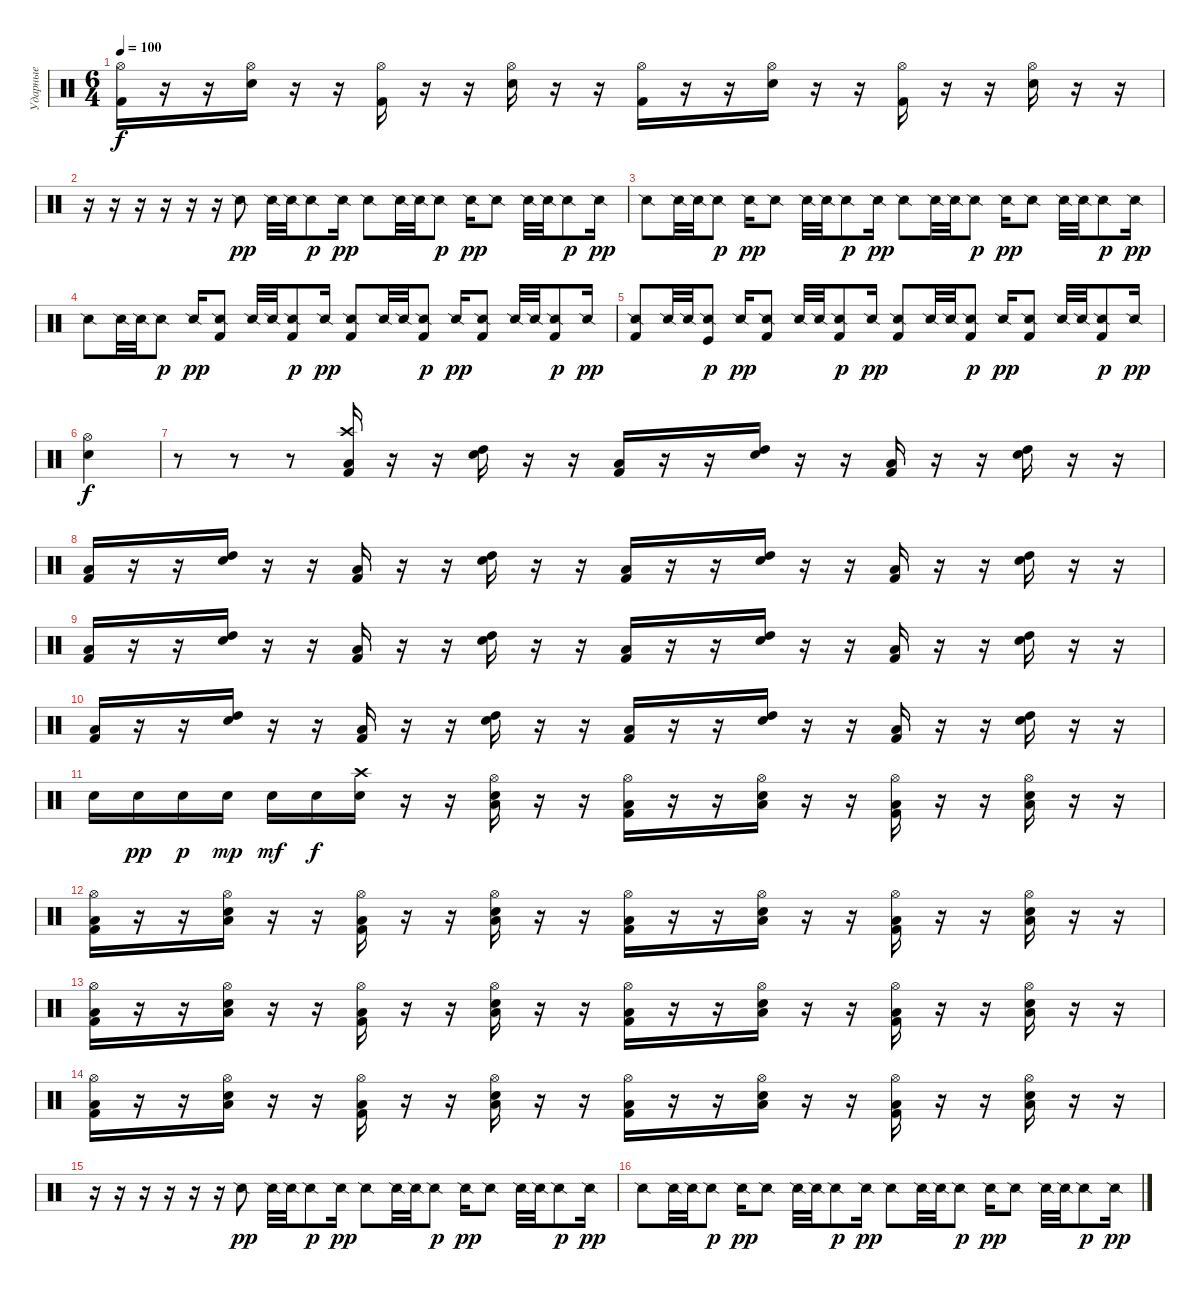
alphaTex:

\track ("Ударные" "Ударные") {instrument percussion}
\staff {score}
\articulation defaults
\ts (6 4)
\tempo 100
\clef neutral
\ks c
("Hi-Hat (open)" "Kick (hit) 2").16{dy f} r.16 r.16 ("Hi-Hat (open)" "Snare (hit) 2").16 r.16 r.16 ("Hi-Hat (open)" "Kick (hit) 2").16 r.16 r.16 ("Hi-Hat (open)" "Snare (hit) 2").16 r.16 r.16 ("Hi-Hat (open)" "Kick (hit) 2").16 r.16 r.16 ("Hi-Hat (open)" "Snare (hit) 2").16 r.16 r.16 ("Hi-Hat (open)" "Kick (hit) 2").16 r.16 r.16 ("Hi-Hat (open)" "Snare (hit) 2").16 r.16 r.16 |
r.16 r.16 r.16 r.16 r.16 r.16 "Snare (side stick) 2".8{dy pp} "Snare (side stick) 2".32 "Snare (side stick) 2".32 "Snare (side stick) 2".8{dy p} "Snare (side stick) 2".16{dy pp} "Snare (side stick) 2".8 "Snare (side stick) 2".32 "Snare (side stick) 2".32 "Snare (side stick) 2".8{dy p} "Snare (side stick) 2".16{dy pp} "Snare (side stick) 2".8 "Snare (side stick) 2".32 "Snare (side stick) 2".32 "Snare (side stick) 2".8{dy p} "Snare (side stick) 2".16{dy pp} |
"Snare (side stick) 2".8 "Snare (side stick) 2".32 "Snare (side stick) 2".32 "Snare (side stick) 2".8{dy p} "Snare (side stick) 2".16{dy pp} "Snare (side stick) 2".8 "Snare (side stick) 2".32 "Snare (side stick) 2".32 "Snare (side stick) 2".8{dy p} "Snare (side stick) 2".16{dy pp} "Snare (side stick) 2".8 "Snare (side stick) 2".32 "Snare (side stick) 2".32 "Snare (side stick) 2".8{dy p} "Snare (side stick) 2".16{dy pp} "Snare (side stick) 2".8 "Snare (side stick) 2".32 "Snare (side stick) 2".32 "Snare (side stick) 2".8{dy p} "Snare (side stick) 2".16{dy pp} |
"Snare (side stick) 2".8 "Snare (side stick) 2".32 "Snare (side stick) 2".32 "Snare (side stick) 2".8{dy p} "Snare (side stick) 2".16{dy pp} ("Snare (side stick) 2" "Kick (hit) 2").8 "Snare (side stick) 2".32 "Snare (side stick) 2".32 ("Snare (side stick) 2" "Kick (hit) 2").8{dy p} "Snare (side stick) 2".16{dy pp} ("Snare (side stick) 2" "Kick (hit) 2").8 "Snare (side stick) 2".32 "Snare (side stick) 2".32 ("Snare (side stick) 2" "Kick (hit) 2").8{dy p} "Snare (side stick) 2".16{dy pp} ("Snare (side stick) 2" "Kick (hit) 2").8 "Snare (side stick) 2".32 "Snare (side stick) 2".32 ("Snare (side stick) 2" "Kick (hit) 2").8{dy p} "Snare (side stick) 2".16{dy pp} |
("Snare (side stick) 2" "Kick (hit) 2").8 "Snare (side stick) 2".32 "Snare (side stick) 2".32 ("Snare (side stick) 2" "Kick (hit)").8{dy p} "Snare (side stick) 2".16{dy pp} ("Snare (side stick) 2" "Kick (hit) 2").8 "Snare (side stick) 2".32 "Snare (side stick) 2".32 ("Snare (side stick) 2" "Kick (hit) 2").8{dy p} "Snare (side stick) 2".16{dy pp} ("Snare (side stick) 2" "Kick (hit) 2").8 "Snare (side stick) 2".32 "Snare (side stick) 2".32 ("Snare (side stick) 2" "Kick (hit) 2").8{dy p} "Snare (side stick) 2".16{dy pp} ("Snare (side stick) 2" "Kick (hit) 2").8 "Snare (side stick) 2".32 "Snare (side stick) 2".32 ("Snare (side stick) 2" "Kick (hit) 2").8{dy p} "Snare (side stick) 2".16{dy pp} |
("Hi-Hat (open)" "Snare (hit) 2").4{dy f} |
r.8 r.8 r.8 ("Crash high (hit)" "Low Tom (hit)" "Kick (hit) 2").16 r.16 r.16 ("High Tom (hit)" "Snare (hit) 2").16 r.16 r.16 ("Low Tom (hit)" "Kick (hit) 2").16 r.16 r.16 ("High Tom (hit)" "Snare (hit) 2").16 r.16 r.16 ("Low Tom (hit)" "Kick (hit) 2").16 r.16 r.16 ("High Tom (hit)" "Snare (hit) 2").16 r.16 r.16 |
("Low Tom (hit)" "Kick (hit) 2").16 r.16 r.16 ("High Tom (hit)" "Snare (hit) 2").16 r.16 r.16 ("Low Tom (hit)" "Kick (hit) 2").16 r.16 r.16 ("High Tom (hit)" "Snare (hit) 2").16 r.16 r.16 ("Low Tom (hit)" "Kick (hit) 2").16 r.16 r.16 ("High Tom (hit)" "Snare (hit) 2").16 r.16 r.16 ("Low Tom (hit)" "Kick (hit) 2").16 r.16 r.16 ("High Tom (hit)" "Snare (hit) 2").16 r.16 r.16 |
("Low Tom (hit)" "Kick (hit) 2").16 r.16 r.16 ("High Tom (hit)" "Snare (hit) 2").16 r.16 r.16 ("Low Tom (hit)" "Kick (hit) 2").16 r.16 r.16 ("High Tom (hit)" "Snare (hit) 2").16 r.16 r.16 ("Low Tom (hit)" "Kick (hit) 2").16 r.16 r.16 ("High Tom (hit)" "Snare (hit) 2").16 r.16 r.16 ("Low Tom (hit)" "Kick (hit) 2").16 r.16 r.16 ("High Tom (hit)" "Snare (hit) 2").16 r.16 r.16 |
("Low Tom (hit)" "Kick (hit) 2").16 r.16 r.16 ("High Tom (hit)" "Snare (hit) 2").16 r.16 r.16 ("Low Tom (hit)" "Kick (hit) 2").16 r.16 r.16 ("High Tom (hit)" "Snare (hit) 2").16 r.16 r.16 ("Low Tom (hit)" "Kick (hit) 2").16 r.16 r.16 ("High Tom (hit)" "Snare (hit) 2").16 r.16 r.16 ("Low Tom (hit)" "Kick (hit) 2").16 r.16 r.16 ("High Tom (hit)" "Snare (hit) 2").16 r.16 r.16 |
"Snare (hit) 2".16 "Snare (hit) 2".16{dy pp} "Snare (hit) 2".16{dy p} "Snare (hit) 2".16{dy mp} "Snare (hit) 2".16{dy mf} "Snare (hit) 2".16{dy f} ("Crash high (hit)" "Snare (hit) 2").16 r.16 r.16 ("Hi-Hat (open)" "Low Tom (hit)" "Snare (hit) 2").16 r.16 r.16 ("Hi-Hat (open)" "Low Tom (hit)" "Kick (hit) 2").16 r.16 r.16 ("Hi-Hat (open)" "Low Tom (hit)" "Snare (hit) 2").16 r.16 r.16 ("Hi-Hat (open)" "Low Tom (hit)" "Kick (hit) 2").16 r.16 r.16 ("Hi-Hat (open)" "Low Tom (hit)" "Snare (hit) 2").16 r.16 r.16 |
("Hi-Hat (open)" "Low Tom (hit)" "Kick (hit) 2").16 r.16 r.16 ("Hi-Hat (open)" "Low Tom (hit)" "Snare (hit) 2").16 r.16 r.16 ("Hi-Hat (open)" "Low Tom (hit)" "Kick (hit) 2").16 r.16 r.16 ("Hi-Hat (open)" "Low Tom (hit)" "Snare (hit) 2").16 r.16 r.16 ("Hi-Hat (open)" "Low Tom (hit)" "Kick (hit) 2").16 r.16 r.16 ("Hi-Hat (open)" "Low Tom (hit)" "Snare (hit) 2").16 r.16 r.16 ("Hi-Hat (open)" "Low Tom (hit)" "Kick (hit) 2").16 r.16 r.16 ("Hi-Hat (open)" "Low Tom (hit)" "Snare (hit) 2").16 r.16 r.16 |
("Hi-Hat (open)" "Low Tom (hit)" "Kick (hit) 2").16 r.16 r.16 ("Hi-Hat (open)" "Low Tom (hit)" "Snare (hit) 2").16 r.16 r.16 ("Hi-Hat (open)" "Low Tom (hit)" "Kick (hit) 2").16 r.16 r.16 ("Hi-Hat (open)" "Low Tom (hit)" "Snare (hit) 2").16 r.16 r.16 ("Hi-Hat (open)" "Low Tom (hit)" "Kick (hit) 2").16 r.16 r.16 ("Hi-Hat (open)" "Low Tom (hit)" "Snare (hit) 2").16 r.16 r.16 ("Hi-Hat (open)" "Low Tom (hit)" "Kick (hit) 2").16 r.16 r.16 ("Hi-Hat (open)" "Low Tom (hit)" "Snare (hit) 2").16 r.16 r.16 |
("Hi-Hat (open)" "Low Tom (hit)" "Kick (hit) 2").16 r.16 r.16 ("Hi-Hat (open)" "Low Tom (hit)" "Snare (hit) 2").16 r.16 r.16 ("Hi-Hat (open)" "Low Tom (hit)" "Kick (hit) 2").16 r.16 r.16 ("Hi-Hat (open)" "Low Tom (hit)" "Snare (hit) 2").16 r.16 r.16 ("Hi-Hat (open)" "Low Tom (hit)" "Kick (hit) 2").16 r.16 r.16 ("Hi-Hat (open)" "Low Tom (hit)" "Snare (hit) 2").16 r.16 r.16 ("Hi-Hat (open)" "Low Tom (hit)" "Kick (hit) 2").16 r.16 r.16 ("Hi-Hat (open)" "Low Tom (hit)" "Snare (hit) 2").16 r.16 r.16 |
r.16 r.16 r.16 r.16 r.16 r.16 "Snare (side stick) 2".8{dy pp} "Snare (side stick) 2".32 "Snare (side stick) 2".32 "Snare (side stick) 2".8{dy p} "Snare (side stick) 2".16{dy pp} "Snare (side stick) 2".8 "Snare (side stick) 2".32 "Snare (side stick) 2".32 "Snare (side stick) 2".8{dy p} "Snare (side stick) 2".16{dy pp} "Snare (side stick) 2".8 "Snare (side stick) 2".32 "Snare (side stick) 2".32 "Snare (side stick) 2".8{dy p} "Snare (side stick) 2".16{dy pp} |
"Snare (side stick) 2".8 "Snare (side stick) 2".32 "Snare (side stick) 2".32 "Snare (side stick) 2".8{dy p} "Snare (side stick) 2".16{dy pp} "Snare (side stick) 2".8 "Snare (side stick) 2".32 "Snare (side stick) 2".32 "Snare (side stick) 2".8{dy p} "Snare (side stick) 2".16{dy pp} "Snare (side stick) 2".8 "Snare (side stick) 2".32 "Snare (side stick) 2".32 "Snare (side stick) 2".8{dy p} "Snare (side stick) 2".16{dy pp} "Snare (side stick) 2".8 "Snare (side stick) 2".32 "Snare (side stick) 2".32 "Snare (side stick) 2".8{dy p} "Snare (side stick) 2".16{dy pp}
